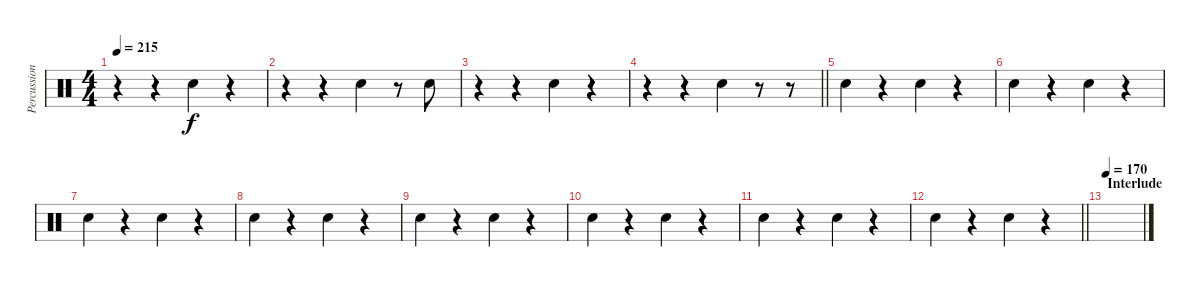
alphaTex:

\track ("Percussion" "Percussion") {instrument percussion}
\staff {score}
\articulation defaults
\ts (4 4)
\tempo 215
\clef neutral
\ks c
r.4{dy f} r.4 "Snare (hit) 2".4 r.4 |
r.4 r.4 "Snare (hit) 2".4 r.8 "Snare (hit) 2".8 |
r.4 r.4 "Snare (hit) 2".4 r.4 |
\barLineRight lightlight
r.4 r.4 "Snare (hit) 2".4 r.8 r.8 |
"Snare (hit) 2".4 r.4 "Snare (hit) 2".4 r.4 |
"Snare (hit) 2".4 r.4 "Snare (hit) 2".4 r.4 |
"Snare (hit) 2".4 r.4 "Snare (hit) 2".4 r.4 |
"Snare (hit) 2".4 r.4 "Snare (hit) 2".4 r.4 |
"Snare (hit) 2".4 r.4 "Snare (hit) 2".4 r.4 |
"Snare (hit) 2".4 r.4 "Snare (hit) 2".4 r.4 |
"Snare (hit) 2".4 r.4 "Snare (hit) 2".4 r.4 |
\barLineRight lightlight "Snare (hit) 2".4
r.4 "Snare (hit) 2".4 r.4 |
\section ("" "Interlude")
\tempo 170
